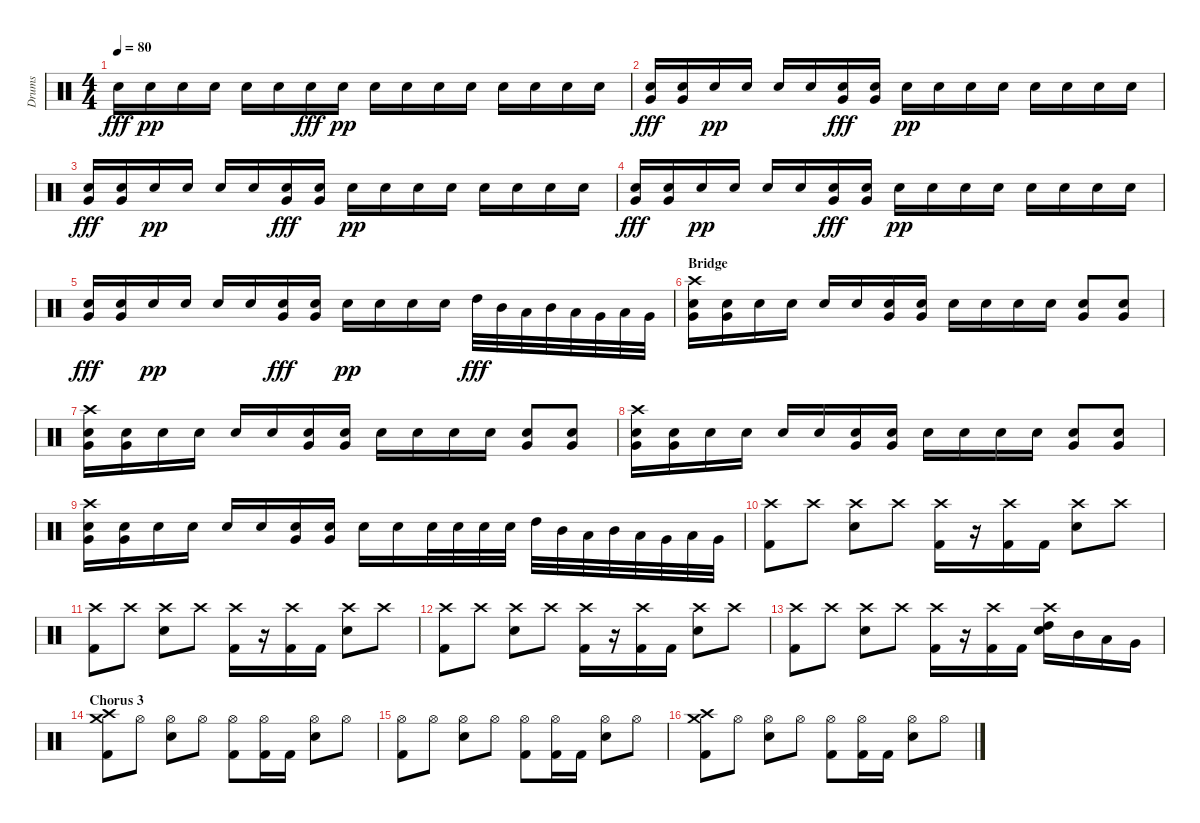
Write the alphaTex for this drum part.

\track ("Drums" "Drums") {instrument percussion}
\staff {score}
\articulation defaults
\ts (4 4)
\tempo 80
\clef neutral
\ks c "Electric Snare (hit)".16{dy fff} "Electric Snare (hit)".16{dy pp} "Electric Snare (hit)".16 "Electric Snare (hit)".16 "Electric Snare (hit)".16 "Electric Snare (hit)".16 "Electric Snare (hit)".16{dy fff} "Electric Snare (hit)".16{dy pp} "Electric Snare (hit)".16 "Electric Snare (hit)".16 "Electric Snare (hit)".16 "Electric Snare (hit)".16 "Electric Snare (hit)".16 "Electric Snare (hit)".16 "Electric Snare (hit)".16 "Electric Snare (hit)".16
|
("Very Low Tom (hit)" "Electric Snare (hit)").16{dy fff} ("Very Low Tom (hit)" "Electric Snare (hit)").16 "Electric Snare (hit)".16{dy pp} "Electric Snare (hit)".16 "Electric Snare (hit)".16 "Electric Snare (hit)".16 ("Very Low Tom (hit)" "Electric Snare (hit)").16{dy fff} ("Very Low Tom (hit)" "Electric Snare (hit)").16 "Electric Snare (hit)".16{dy pp} "Electric Snare (hit)".16 "Electric Snare (hit)".16 "Electric Snare (hit)".16 "Electric Snare (hit)".16 "Electric Snare (hit)".16 "Electric Snare (hit)".16 "Electric Snare (hit)".16 |
("Very Low Tom (hit)" "Electric Snare (hit)").16{dy fff} ("Very Low Tom (hit)" "Electric Snare (hit)").16 "Electric Snare (hit)".16{dy pp} "Electric Snare (hit)".16 "Electric Snare (hit)".16 "Electric Snare (hit)".16 ("Very Low Tom (hit)" "Electric Snare (hit)").16{dy fff} ("Very Low Tom (hit)" "Electric Snare (hit)").16 "Electric Snare (hit)".16{dy pp} "Electric Snare (hit)".16 "Electric Snare (hit)".16 "Electric Snare (hit)".16 "Electric Snare (hit)".16 "Electric Snare (hit)".16 "Electric Snare (hit)".16 "Electric Snare (hit)".16 |
("Very Low Tom (hit)" "Electric Snare (hit)").16{dy fff} ("Very Low Tom (hit)" "Electric Snare (hit)").16 "Electric Snare (hit)".16{dy pp} "Electric Snare (hit)".16 "Electric Snare (hit)".16 "Electric Snare (hit)".16 ("Very Low Tom (hit)" "Electric Snare (hit)").16{dy fff} ("Very Low Tom (hit)" "Electric Snare (hit)").16 "Electric Snare (hit)".16{dy pp} "Electric Snare (hit)".16 "Electric Snare (hit)".16 "Electric Snare (hit)".16 "Electric Snare (hit)".16 "Electric Snare (hit)".16 "Electric Snare (hit)".16 "Electric Snare (hit)".16 |
("Very Low Tom (hit)" "Electric Snare (hit)").16{dy fff} ("Very Low Tom (hit)" "Electric Snare (hit)").16 "Electric Snare (hit)".16{dy pp} "Electric Snare (hit)".16 "Electric Snare (hit)".16 "Electric Snare (hit)".16 ("Very Low Tom (hit)" "Electric Snare (hit)").16{dy fff} ("Very Low Tom (hit)" "Electric Snare (hit)").16 "Electric Snare (hit)".16{dy pp} "Electric Snare (hit)".16 "Electric Snare (hit)".16 "Electric Snare (hit)".16 "High Tom (hit)".32{dy fff} "Mid Tom (hit)".32 "Low Tom (hit)".32 "Mid Tom (hit)".32 "Low Tom (hit)".32 "Very Low Tom (hit)".32 "Low Tom (hit)".32 "Very Low Tom (hit)".32 |
\section ("" "Bridge")
("Crash high (hit)" "Very Low Tom (hit)" "Electric Snare (hit)").16 ("Very Low Tom (hit)" "Electric Snare (hit)").16 "Electric Snare (hit)".16 "Electric Snare (hit)".16 "Electric Snare (hit)".16 "Electric Snare (hit)".16 ("Very Low Tom (hit)" "Electric Snare (hit)").16 ("Very Low Tom (hit)" "Electric Snare (hit)").16 "Electric Snare (hit)".16 "Electric Snare (hit)".16 "Electric Snare (hit)".16 "Electric Snare (hit)".16 ("Very Low Tom (hit)" "Electric Snare (hit)").8 ("Very Low Tom (hit)" "Electric Snare (hit)").8 |
("Crash high (hit)" "Very Low Tom (hit)" "Electric Snare (hit)").16 ("Very Low Tom (hit)" "Electric Snare (hit)").16 "Electric Snare (hit)".16 "Electric Snare (hit)".16 "Electric Snare (hit)".16 "Electric Snare (hit)".16 ("Very Low Tom (hit)" "Electric Snare (hit)").16 ("Very Low Tom (hit)" "Electric Snare (hit)").16 "Electric Snare (hit)".16 "Electric Snare (hit)".16 "Electric Snare (hit)".16 "Electric Snare (hit)".16 ("Very Low Tom (hit)" "Electric Snare (hit)").8 ("Very Low Tom (hit)" "Electric Snare (hit)").8 |
("Crash high (hit)" "Very Low Tom (hit)" "Electric Snare (hit)").16 ("Very Low Tom (hit)" "Electric Snare (hit)").16 "Electric Snare (hit)".16 "Electric Snare (hit)".16 "Electric Snare (hit)".16 "Electric Snare (hit)".16 ("Very Low Tom (hit)" "Electric Snare (hit)").16 ("Very Low Tom (hit)" "Electric Snare (hit)").16 "Electric Snare (hit)".16 "Electric Snare (hit)".16 "Electric Snare (hit)".16 "Electric Snare (hit)".16 ("Very Low Tom (hit)" "Electric Snare (hit)").8 ("Very Low Tom (hit)" "Electric Snare (hit)").8 |
("Crash high (hit)" "Very Low Tom (hit)" "Electric Snare (hit)").16 ("Very Low Tom (hit)" "Electric Snare (hit)").16 "Electric Snare (hit)".16 "Electric Snare (hit)".16 "Electric Snare (hit)".16 "Electric Snare (hit)".16 ("Very Low Tom (hit)" "Electric Snare (hit)").16 ("Very Low Tom (hit)" "Electric Snare (hit)").16 "Electric Snare (hit)".16 "Electric Snare (hit)".16 "Electric Snare (hit)".32 "Electric Snare (hit)".32 "Electric Snare (hit)".32 "Electric Snare (hit)".32 "High Tom (hit)".32 "Mid Tom (hit)".32 "Low Tom (hit)".32 "Mid Tom (hit)".32 "Low Tom (hit)".32 "Very Low Tom (hit)".32 "Low Tom (hit)".32 "Very Low Tom (hit)".32 |
("Crash high (hit)" "Kick (hit) 2").8 "Crash high (hit)".8 ("Crash high (hit)" "Electric Snare (hit)").8 "Crash high (hit)".8 ("Crash high (hit)" "Kick (hit) 2").16 r.16 ("Crash high (hit)" "Kick (hit) 2").16 "Kick (hit) 2".16 ("Crash high (hit)" "Electric Snare (hit)").8 "Crash high (hit)".8 |
("Crash high (hit)" "Kick (hit) 2").8 "Crash high (hit)".8 ("Crash high (hit)" "Electric Snare (hit)").8 "Crash high (hit)".8 ("Crash high (hit)" "Kick (hit) 2").16 r.16 ("Crash high (hit)" "Kick (hit) 2").16 "Kick (hit) 2".16 ("Crash high (hit)" "Electric Snare (hit)").8 "Crash high (hit)".8 |
("Crash high (hit)" "Kick (hit) 2").8 "Crash high (hit)".8 ("Crash high (hit)" "Electric Snare (hit)").8 "Crash high (hit)".8 ("Crash high (hit)" "Kick (hit) 2").16 r.16 ("Crash high (hit)" "Kick (hit) 2").16 "Kick (hit) 2".16 ("Crash high (hit)" "Electric Snare (hit)").8 "Crash high (hit)".8 |
("Crash high (hit)" "Kick (hit) 2").8 "Crash high (hit)".8 ("Crash high (hit)" "Electric Snare (hit)").8 "Crash high (hit)".8 ("Crash high (hit)" "Kick (hit) 2").16 r.16 ("Crash high (hit)" "Kick (hit) 2").16 "Kick (hit) 2".16 ("Crash high (hit)" "High Tom (hit)" "Electric Snare (hit)").16 "Mid Tom (hit)".16 "Low Tom (hit)".16 "Very Low Tom (hit)".16 |
\section ("" "Chorus 3")
("Crash high (hit)" "Crash medium (hit)" "Kick (hit) 2").8 "Hi-Hat (open)".8 ("Hi-Hat (open)" "Electric Snare (hit)").8 "Hi-Hat (open)".8 ("Hi-Hat (open)" "Kick (hit) 2").8 ("Hi-Hat (open)" "Kick (hit) 2").16 "Kick (hit) 2".16 ("Hi-Hat (open)" "Electric Snare (hit)").8 "Hi-Hat (open)".8 |
("Hi-Hat (open)" "Kick (hit) 2").8 "Hi-Hat (open)".8 ("Hi-Hat (open)" "Electric Snare (hit)").8 "Hi-Hat (open)".8 ("Hi-Hat (open)" "Kick (hit) 2").8 ("Hi-Hat (open)" "Kick (hit) 2").16 "Kick (hit) 2".16 ("Hi-Hat (open)" "Electric Snare (hit)").8 "Hi-Hat (open)".8 |
("Crash high (hit)" "Crash medium (hit)" "Kick (hit) 2").8 "Hi-Hat (open)".8 ("Hi-Hat (open)" "Electric Snare (hit)").8 "Hi-Hat (open)".8 ("Hi-Hat (open)" "Kick (hit) 2").8 ("Hi-Hat (open)" "Kick (hit) 2").16 "Kick (hit) 2".16 ("Hi-Hat (open)" "Electric Snare (hit)").8 "Hi-Hat (open)".8
